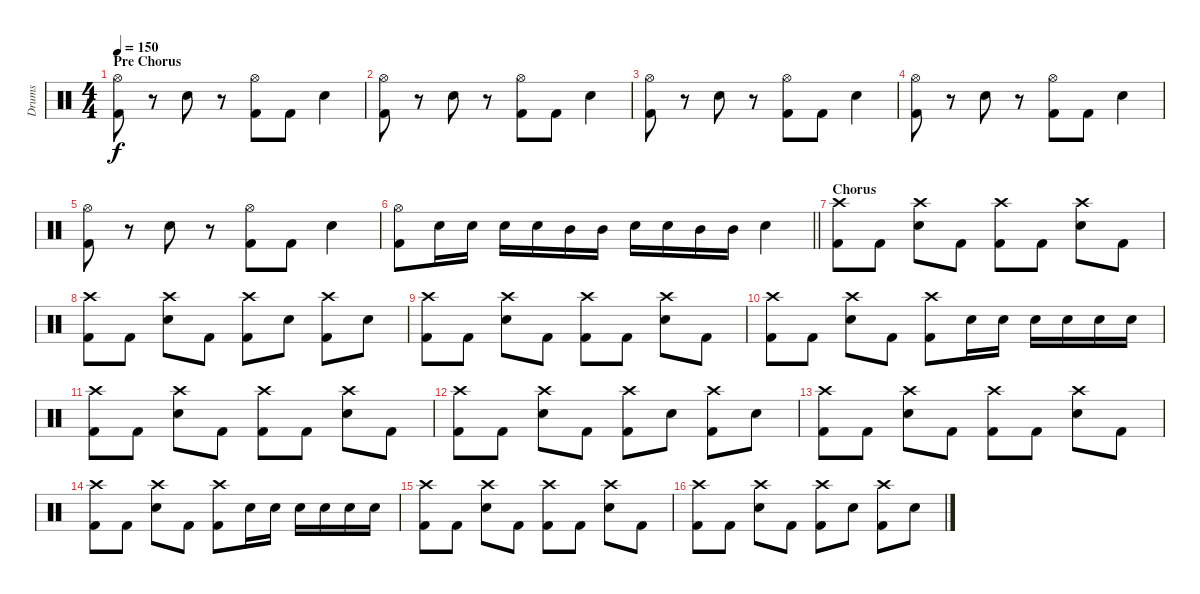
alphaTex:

\track ("Drums" "Drums") {instrument percussion}
\staff {score}
\articulation defaults
\ts (4 4)
\section ("" "Pre Chorus")
\tempo 150
\clef neutral
\ks c
("Kick (hit) 2" "Hi-Hat (open)").8{dy f} r.8 "Snare (hit) 2".8 r.8 ("Kick (hit) 2" "Hi-Hat (open)").8 "Kick (hit) 2".8 "Snare (hit) 2".4 |
("Kick (hit) 2" "Hi-Hat (open)").8 r.8 "Snare (hit) 2".8 r.8 ("Kick (hit) 2" "Hi-Hat (open)").8 "Kick (hit) 2".8 "Snare (hit) 2".4 |
("Kick (hit) 2" "Hi-Hat (open)").8 r.8 "Snare (hit) 2".8 r.8 ("Kick (hit) 2" "Hi-Hat (open)").8 "Kick (hit) 2".8 "Snare (hit) 2".4 |
("Kick (hit) 2" "Hi-Hat (open)").8 r.8 "Snare (hit) 2".8 r.8 ("Kick (hit) 2" "Hi-Hat (open)").8 "Kick (hit) 2".8 "Snare (hit) 2".4 |
("Kick (hit) 2" "Hi-Hat (open)").8 r.8 "Snare (hit) 2".8 r.8 ("Kick (hit) 2" "Hi-Hat (open)").8 "Kick (hit) 2".8 "Snare (hit) 2".4 |
\barLineRight lightlight
("Kick (hit) 2" "Hi-Hat (open)").8 "Snare (hit) 2".16 "Snare (hit) 2".16 "Snare (hit) 2".16 "Snare (hit) 2".16 "Mid Tom (hit)".16 "Mid Tom (hit)".16 "Snare (hit) 2".16 "Snare (hit) 2".16 "Mid Tom (hit)".16 "Mid Tom (hit)".16 "Snare (hit) 2".4 |
\section ("" "Chorus")
("Kick (hit) 2" "Crash high (hit)").8 "Kick (hit) 2".8 ("Snare (hit) 2" "Crash high (hit)").8 "Kick (hit) 2".8 ("Kick (hit) 2" "Crash high (hit)").8 "Kick (hit) 2".8 ("Snare (hit) 2" "Crash high (hit)").8 "Kick (hit) 2".8 |
("Kick (hit) 2" "Crash high (hit)").8 "Kick (hit) 2".8 ("Snare (hit) 2" "Crash high (hit)").8 "Kick (hit) 2".8 ("Kick (hit) 2" "Crash high (hit)").8 "Snare (hit) 2".8 ("Kick (hit) 2" "Crash high (hit)").8 "Snare (hit) 2".8 |
("Kick (hit) 2" "Crash high (hit)").8 "Kick (hit) 2".8 ("Snare (hit) 2" "Crash high (hit)").8 "Kick (hit) 2".8 ("Kick (hit) 2" "Crash high (hit)").8 "Kick (hit) 2".8 ("Snare (hit) 2" "Crash high (hit)").8 "Kick (hit) 2".8 |
("Kick (hit) 2" "Crash high (hit)").8 "Kick (hit) 2".8 ("Snare (hit) 2" "Crash high (hit)").8 "Kick (hit) 2".8 ("Kick (hit) 2" "Crash high (hit)").8 "Snare (hit) 2".16 "Snare (hit) 2".16 "Snare (hit) 2".16 "Snare (hit) 2".16 "Snare (hit) 2".16 "Snare (hit) 2".16 |
("Kick (hit) 2" "Crash high (hit)").8 "Kick (hit) 2".8 ("Snare (hit) 2" "Crash high (hit)").8 "Kick (hit) 2".8 ("Kick (hit) 2" "Crash high (hit)").8 "Kick (hit) 2".8 ("Snare (hit) 2" "Crash high (hit)").8 "Kick (hit) 2".8 |
("Kick (hit) 2" "Crash high (hit)").8 "Kick (hit) 2".8 ("Snare (hit) 2" "Crash high (hit)").8 "Kick (hit) 2".8 ("Kick (hit) 2" "Crash high (hit)").8 "Snare (hit) 2".8 ("Kick (hit) 2" "Crash high (hit)").8 "Snare (hit) 2".8 |
("Kick (hit) 2" "Crash high (hit)").8 "Kick (hit) 2".8 ("Snare (hit) 2" "Crash high (hit)").8 "Kick (hit) 2".8 ("Kick (hit) 2" "Crash high (hit)").8 "Kick (hit) 2".8 ("Snare (hit) 2" "Crash high (hit)").8 "Kick (hit) 2".8 |
("Kick (hit) 2" "Crash high (hit)").8 "Kick (hit) 2".8 ("Snare (hit) 2" "Crash high (hit)").8 "Kick (hit) 2".8 ("Kick (hit) 2" "Crash high (hit)").8 "Snare (hit) 2".16 "Snare (hit) 2".16 "Snare (hit) 2".16 "Snare (hit) 2".16 "Snare (hit) 2".16 "Snare (hit) 2".16 |
("Kick (hit) 2" "Crash high (hit)").8 "Kick (hit) 2".8 ("Snare (hit) 2" "Crash high (hit)").8 "Kick (hit) 2".8 ("Kick (hit) 2" "Crash high (hit)").8 "Kick (hit) 2".8 ("Snare (hit) 2" "Crash high (hit)").8 "Kick (hit) 2".8 |
("Kick (hit) 2" "Crash high (hit)").8 "Kick (hit) 2".8 ("Snare (hit) 2" "Crash high (hit)").8 "Kick (hit) 2".8 ("Kick (hit) 2" "Crash high (hit)").8 "Snare (hit) 2".8 ("Kick (hit) 2" "Crash high (hit)").8 "Snare (hit) 2".8
